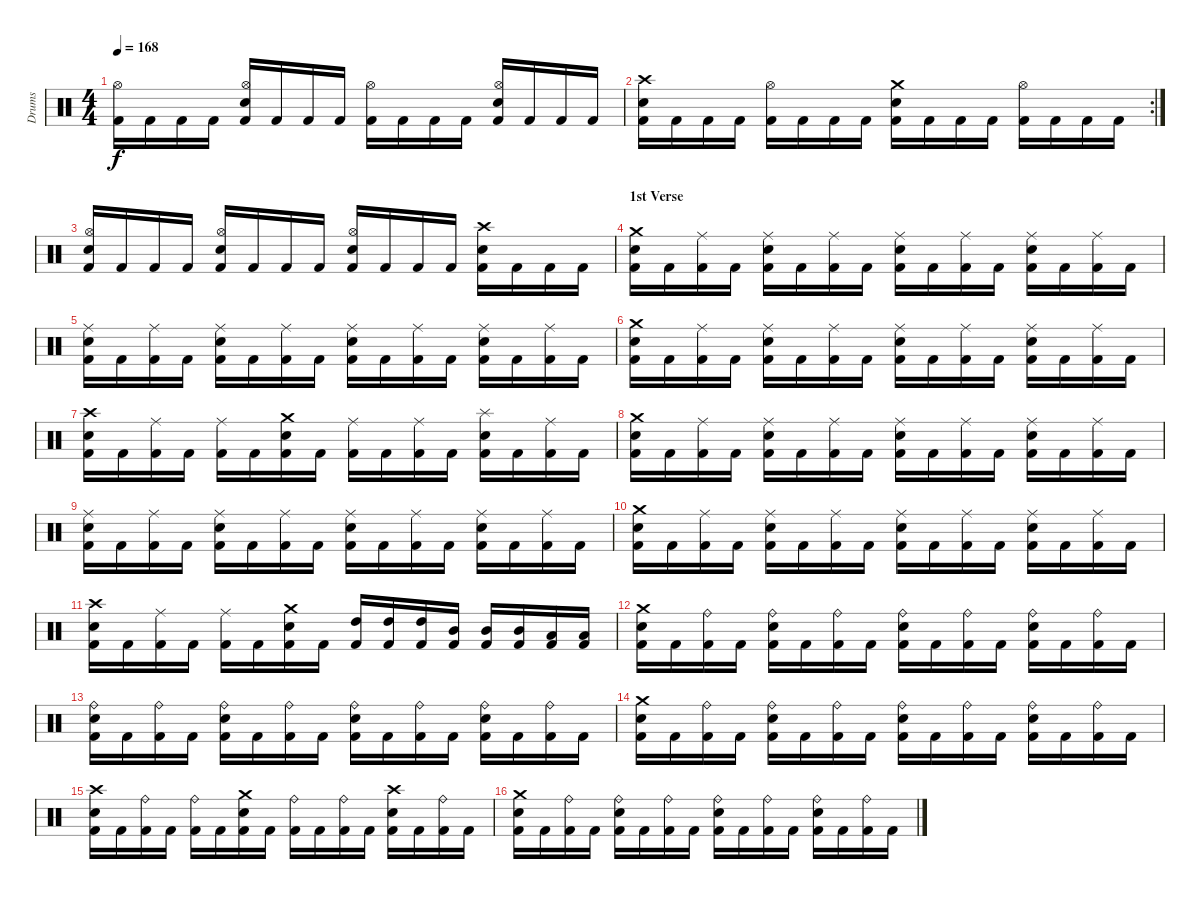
\track ("Drums" "Drums") {instrument percussion}
\staff {score}
\articulation defaults
\ts (4 4)
\tempo 168
\clef neutral
\ks c
("Kick (hit) 2" "Hi-Hat (open)").16{dy f} "Kick (hit) 2".16 "Kick (hit) 2".16 "Kick (hit) 2".16 ("Kick (hit) 2" "Snare (hit) 2" "Hi-Hat (open)").16 "Kick (hit) 2".16 "Kick (hit) 2".16 "Kick (hit) 2".16 ("Kick (hit) 2" "Hi-Hat (open)").16 "Kick (hit) 2".16 "Kick (hit) 2".16 "Kick (hit) 2".16 ("Kick (hit) 2" "Snare (hit) 2" "Hi-Hat (open)").16 "Kick (hit) 2".16 "Kick (hit) 2".16 "Kick (hit) 2".16 |
\rc 2
("Kick (hit) 2" "Snare (hit) 2" "Crash high (hit)").16 "Kick (hit) 2".16 "Kick (hit) 2".16 "Kick (hit) 2".16 ("Kick (hit) 2" "Hi-Hat (open)").16 "Kick (hit) 2".16 "Kick (hit) 2".16 "Kick (hit) 2".16 ("Kick (hit) 2" "Snare (hit) 2" "Crash medium (hit)").16 "Kick (hit) 2".16 "Kick (hit) 2".16 "Kick (hit) 2".16 ("Kick (hit) 2" "Hi-Hat (open)").16 "Kick (hit) 2".16 "Kick (hit) 2".16 "Kick (hit) 2".16 |
("Kick (hit) 2" "Snare (hit) 2" "Hi-Hat (open)").16 "Kick (hit) 2".16 "Kick (hit) 2".16 "Kick (hit) 2".16 ("Kick (hit) 2" "Snare (hit) 2" "Hi-Hat (open)").16 "Kick (hit) 2".16 "Kick (hit) 2".16 "Kick (hit) 2".16 ("Kick (hit) 2" "Snare (hit) 2" "Hi-Hat (open)").16 "Kick (hit) 2".16 "Kick (hit) 2".16 "Kick (hit) 2".16 ("Kick (hit) 2" "Snare (hit) 2" "Crash high (hit)").16 "Kick (hit) 2".16 "Kick (hit) 2".16 "Kick (hit) 2".16 |
\section ("" "1st Verse")
("Kick (hit) 2" "Snare (hit) 2" "Crash medium (hit)").16 "Kick (hit) 2".16 ("Kick (hit) 2" "Ride (middle)").16 "Kick (hit) 2".16 ("Kick (hit) 2" "Snare (hit) 2" "Ride (middle)").16 "Kick (hit) 2".16 ("Kick (hit) 2" "Ride (middle)").16 "Kick (hit) 2".16 ("Kick (hit) 2" "Snare (hit) 2" "Ride (middle)").16 "Kick (hit) 2".16 ("Kick (hit) 2" "Ride (middle)").16 "Kick (hit) 2".16 ("Kick (hit) 2" "Snare (hit) 2" "Ride (middle)").16 "Kick (hit) 2".16 ("Kick (hit) 2" "Ride (middle)").16 "Kick (hit) 2".16 |
("Kick (hit) 2" "Snare (hit) 2" "Ride (middle)").16 "Kick (hit) 2".16 ("Kick (hit) 2" "Ride (middle)").16 "Kick (hit) 2".16 ("Kick (hit) 2" "Snare (hit) 2" "Ride (middle)").16 "Kick (hit) 2".16 ("Kick (hit) 2" "Ride (middle)").16 "Kick (hit) 2".16 ("Kick (hit) 2" "Snare (hit) 2" "Ride (middle)").16 "Kick (hit) 2".16 ("Kick (hit) 2" "Ride (middle)").16 "Kick (hit) 2".16 ("Kick (hit) 2" "Snare (hit) 2" "Ride (middle)").16 "Kick (hit) 2".16 ("Kick (hit) 2" "Ride (middle)").16 "Kick (hit) 2".16 |
("Kick (hit) 2" "Snare (hit) 2" "Crash medium (hit)").16 "Kick (hit) 2".16 ("Kick (hit) 2" "Ride (middle)").16 "Kick (hit) 2".16 ("Kick (hit) 2" "Snare (hit) 2" "Ride (middle)").16 "Kick (hit) 2".16 ("Kick (hit) 2" "Ride (middle)").16 "Kick (hit) 2".16 ("Kick (hit) 2" "Snare (hit) 2" "Ride (middle)").16 "Kick (hit) 2".16 ("Kick (hit) 2" "Ride (middle)").16 "Kick (hit) 2".16 ("Kick (hit) 2" "Snare (hit) 2" "Ride (middle)").16 "Kick (hit) 2".16 ("Kick (hit) 2" "Ride (middle)").16 "Kick (hit) 2".16 |
("Kick (hit) 2" "Snare (hit) 2" "Crash high (hit)").16 "Kick (hit) 2".16 ("Kick (hit) 2" "Ride (middle)").16 "Kick (hit) 2".16 ("Kick (hit) 2" "Ride (middle)").16 "Kick (hit) 2".16 ("Kick (hit) 2" "Snare (hit) 2" "Crash medium (hit)").16 "Kick (hit) 2".16 ("Kick (hit) 2" "Ride (middle)").16 "Kick (hit) 2".16 ("Kick (hit) 2" "Ride (middle)").16 "Kick (hit) 2".16 ("Kick (hit) 2" "Snare (hit) 2" "Splash (hit)").16 "Kick (hit) 2".16 ("Kick (hit) 2" "Ride (middle)").16 "Kick (hit) 2".16 |
("Kick (hit) 2" "Snare (hit) 2" "Crash medium (hit)").16 "Kick (hit) 2".16 ("Kick (hit) 2" "Ride (middle)").16 "Kick (hit) 2".16 ("Kick (hit) 2" "Snare (hit) 2" "Ride (middle)").16 "Kick (hit) 2".16 ("Kick (hit) 2" "Ride (middle)").16 "Kick (hit) 2".16 ("Kick (hit) 2" "Snare (hit) 2" "Ride (middle)").16 "Kick (hit) 2".16 ("Kick (hit) 2" "Ride (middle)").16 "Kick (hit) 2".16 ("Kick (hit) 2" "Snare (hit) 2" "Ride (middle)").16 "Kick (hit) 2".16 ("Kick (hit) 2" "Ride (middle)").16 "Kick (hit) 2".16 |
("Kick (hit) 2" "Snare (hit) 2" "Ride (middle)").16 "Kick (hit) 2".16 ("Kick (hit) 2" "Ride (middle)").16 "Kick (hit) 2".16 ("Kick (hit) 2" "Snare (hit) 2" "Ride (middle)").16 "Kick (hit) 2".16 ("Kick (hit) 2" "Ride (middle)").16 "Kick (hit) 2".16 ("Kick (hit) 2" "Snare (hit) 2" "Ride (middle)").16 "Kick (hit) 2".16 ("Kick (hit) 2" "Ride (middle)").16 "Kick (hit) 2".16 ("Kick (hit) 2" "Snare (hit) 2" "Ride (middle)").16 "Kick (hit) 2".16 ("Kick (hit) 2" "Ride (middle)").16 "Kick (hit) 2".16 |
("Kick (hit) 2" "Snare (hit) 2" "Crash medium (hit)").16 "Kick (hit) 2".16 ("Kick (hit) 2" "Ride (middle)").16 "Kick (hit) 2".16 ("Kick (hit) 2" "Snare (hit) 2" "Ride (middle)").16 "Kick (hit) 2".16 ("Kick (hit) 2" "Ride (middle)").16 "Kick (hit) 2".16 ("Kick (hit) 2" "Snare (hit) 2" "Ride (middle)").16 "Kick (hit) 2".16 ("Kick (hit) 2" "Ride (middle)").16 "Kick (hit) 2".16 ("Kick (hit) 2" "Snare (hit) 2" "Ride (middle)").16 "Kick (hit) 2".16 ("Kick (hit) 2" "Ride (middle)").16 "Kick (hit) 2".16 |
("Kick (hit) 2" "Snare (hit) 2" "Crash high (hit)").16 "Kick (hit) 2".16 ("Kick (hit) 2" "Ride (middle)").16 "Kick (hit) 2".16 ("Kick (hit) 2" "Ride (middle)").16 "Kick (hit) 2".16 ("Kick (hit) 2" "Snare (hit) 2" "Crash medium (hit)").16 "Kick (hit) 2".16 ("Kick (hit) 2" "High Tom (hit)").16 ("Kick (hit) 2" "High Tom (hit)").16 ("Kick (hit) 2" "High Tom (hit)").16 ("Kick (hit) 2" "Mid Tom (hit)").16 ("Kick (hit) 2" "Mid Tom (hit)").16 ("Kick (hit) 2" "Mid Tom (hit)").16 ("Kick (hit) 2" "Low Tom (hit)").16 ("Kick (hit) 2" "Low Tom (hit)").16 |
("Kick (hit) 2" "Snare (hit) 2" "Crash medium (hit)").16 "Kick (hit) 2".16 ("Kick (hit) 2" "Ride (bell)").16 "Kick (hit) 2".16 ("Kick (hit) 2" "Snare (hit) 2" "Ride (bell)").16 "Kick (hit) 2".16 ("Kick (hit) 2" "Ride (bell)").16 "Kick (hit) 2".16 ("Kick (hit) 2" "Snare (hit) 2" "Ride (bell)").16 "Kick (hit) 2".16 ("Kick (hit) 2" "Ride (bell)").16 "Kick (hit) 2".16 ("Kick (hit) 2" "Snare (hit) 2" "Ride (bell)").16 "Kick (hit) 2".16 ("Kick (hit) 2" "Ride (bell)").16 "Kick (hit) 2".16 |
("Kick (hit) 2" "Snare (hit) 2" "Ride (bell)").16 "Kick (hit) 2".16 ("Kick (hit) 2" "Ride (bell)").16 "Kick (hit) 2".16 ("Kick (hit) 2" "Snare (hit) 2" "Ride (bell)").16 "Kick (hit) 2".16 ("Kick (hit) 2" "Ride (bell)").16 "Kick (hit) 2".16 ("Kick (hit) 2" "Snare (hit) 2" "Ride (bell)").16 "Kick (hit) 2".16 ("Kick (hit) 2" "Ride (bell)").16 "Kick (hit) 2".16 ("Kick (hit) 2" "Snare (hit) 2" "Ride (bell)").16 "Kick (hit) 2".16 ("Kick (hit) 2" "Ride (bell)").16 "Kick (hit) 2".16 |
("Kick (hit) 2" "Snare (hit) 2" "Crash medium (hit)").16 "Kick (hit) 2".16 ("Kick (hit) 2" "Ride (bell)").16 "Kick (hit) 2".16 ("Kick (hit) 2" "Snare (hit) 2" "Ride (bell)").16 "Kick (hit) 2".16 ("Kick (hit) 2" "Ride (bell)").16 "Kick (hit) 2".16 ("Kick (hit) 2" "Snare (hit) 2" "Ride (bell)").16 "Kick (hit) 2".16 ("Kick (hit) 2" "Ride (bell)").16 "Kick (hit) 2".16 ("Kick (hit) 2" "Snare (hit) 2" "Ride (bell)").16 "Kick (hit) 2".16 ("Kick (hit) 2" "Ride (bell)").16 "Kick (hit) 2".16 |
("Kick (hit) 2" "Snare (hit) 2" "Crash high (hit)").16 "Kick (hit) 2".16 ("Kick (hit) 2" "Ride (bell)").16 "Kick (hit) 2".16 ("Kick (hit) 2" "Ride (bell)").16 "Kick (hit) 2".16 ("Kick (hit) 2" "Snare (hit) 2" "Crash medium (hit)").16 "Kick (hit) 2".16 ("Kick (hit) 2" "Ride (bell)").16 "Kick (hit) 2".16 ("Kick (hit) 2" "Ride (bell)").16 "Kick (hit) 2".16 ("Kick (hit) 2" "Snare (hit) 2" "Crash high (hit)").16 "Kick (hit) 2".16 ("Kick (hit) 2" "Ride (bell)").16 "Kick (hit) 2".16 |
("Kick (hit) 2" "Snare (hit) 2" "Crash medium (hit)").16 "Kick (hit) 2".16 ("Kick (hit) 2" "Ride (bell)").16 "Kick (hit) 2".16 ("Kick (hit) 2" "Snare (hit) 2" "Ride (bell)").16 "Kick (hit) 2".16 ("Kick (hit) 2" "Ride (bell)").16 "Kick (hit) 2".16 ("Kick (hit) 2" "Snare (hit) 2" "Ride (bell)").16 "Kick (hit) 2".16 ("Kick (hit) 2" "Ride (bell)").16 "Kick (hit) 2".16 ("Kick (hit) 2" "Snare (hit) 2" "Ride (bell)").16 "Kick (hit) 2".16 ("Kick (hit) 2" "Ride (bell)").16 "Kick (hit) 2".16
